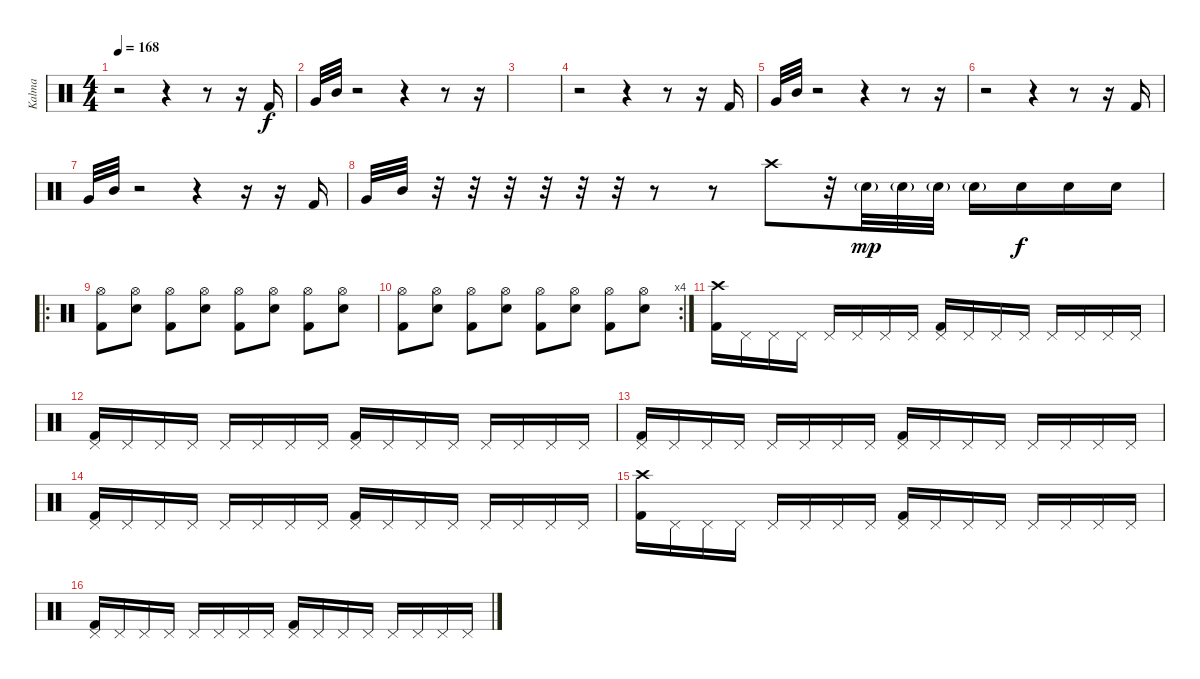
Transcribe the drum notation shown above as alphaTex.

\track ("Kalma" "Kalma") {instrument percussion}
\staff {score}
\articulation defaults
\ts (4 4)
\tempo 168
\clef neutral
\ks c
r.2{dy f} r.4 r.8 r.16 "Kick (hit) 2".16 |
"Very Low Tom (hit)".32 "Mid Tom (hit)".32 r.2 r.4 r.8 r.16 |
|
r.2 r.4 r.8 r.16 "Kick (hit) 2".16 |
"Very Low Tom (hit)".32 "Mid Tom (hit)".32 r.2 r.4 r.8 r.16 |
r.2 r.4 r.8 r.16 "Kick (hit) 2".16 |
"Very Low Tom (hit)".32 "Mid Tom (hit)".32 r.2 r.4 r.16 r.16 "Kick (hit) 2".16 |
"Very Low Tom (hit)".32 "Mid Tom (hit)".32 r.32 r.32 r.32 r.32 r.32 r.32 r.8 r.8 "Crash high (hit)".8 r.32 "Snare (hit) 2"{g}.32{dy mp} "Snare (hit) 2"{g}.32 "Snare (hit) 2"{g}.32 "Snare (hit) 2"{g}.16 "Snare (hit) 2".16{dy f} "Snare (hit) 2".16 "Snare (hit) 2".16 |
\ro
("Hi-Hat (open)" "Kick (hit) 2").8 ("Hi-Hat (open)" "Snare (hit) 2").8 ("Hi-Hat (open)" "Kick (hit) 2").8 ("Hi-Hat (open)" "Snare (hit) 2").8 ("Hi-Hat (open)" "Kick (hit) 2").8 ("Hi-Hat (open)" "Snare (hit) 2").8 ("Hi-Hat (open)" "Kick (hit) 2").8 ("Hi-Hat (open)" "Snare (hit) 2").8 |
\rc 4
("Hi-Hat (open)" "Kick (hit) 2").8 ("Hi-Hat (open)" "Snare (hit) 2").8 ("Hi-Hat (open)" "Kick (hit) 2").8 ("Hi-Hat (open)" "Snare (hit) 2").8 ("Hi-Hat (open)" "Kick (hit) 2").8 ("Hi-Hat (open)" "Snare (hit) 2").8 ("Hi-Hat (open)" "Kick (hit) 2").8 ("Hi-Hat (open)" "Snare (hit) 2").8 |
("Crash high (hit)" "Kick (hit) 2").16 "Pedal Hi-Hat (hit)".16 "Pedal Hi-Hat (hit)".16 "Pedal Hi-Hat (hit)".16 "Pedal Hi-Hat (hit)".16 "Pedal Hi-Hat (hit)".16 "Pedal Hi-Hat (hit)".16 "Pedal Hi-Hat (hit)".16 ("Pedal Hi-Hat (hit)" "Kick (hit) 2").16 "Pedal Hi-Hat (hit)".16 "Pedal Hi-Hat (hit)".16 "Pedal Hi-Hat (hit)".16 "Pedal Hi-Hat (hit)".16 "Pedal Hi-Hat (hit)".16 "Pedal Hi-Hat (hit)".16 "Pedal Hi-Hat (hit)".16 |
("Pedal Hi-Hat (hit)" "Kick (hit) 2").16 "Pedal Hi-Hat (hit)".16 "Pedal Hi-Hat (hit)".16 "Pedal Hi-Hat (hit)".16 "Pedal Hi-Hat (hit)".16 "Pedal Hi-Hat (hit)".16 "Pedal Hi-Hat (hit)".16 "Pedal Hi-Hat (hit)".16 ("Pedal Hi-Hat (hit)" "Kick (hit) 2").16 "Pedal Hi-Hat (hit)".16 "Pedal Hi-Hat (hit)".16 "Pedal Hi-Hat (hit)".16 "Pedal Hi-Hat (hit)".16 "Pedal Hi-Hat (hit)".16 "Pedal Hi-Hat (hit)".16 "Pedal Hi-Hat (hit)".16 |
("Pedal Hi-Hat (hit)" "Kick (hit) 2").16 "Pedal Hi-Hat (hit)".16 "Pedal Hi-Hat (hit)".16 "Pedal Hi-Hat (hit)".16 "Pedal Hi-Hat (hit)".16 "Pedal Hi-Hat (hit)".16 "Pedal Hi-Hat (hit)".16 "Pedal Hi-Hat (hit)".16 ("Pedal Hi-Hat (hit)" "Kick (hit) 2").16 "Pedal Hi-Hat (hit)".16 "Pedal Hi-Hat (hit)".16 "Pedal Hi-Hat (hit)".16 "Pedal Hi-Hat (hit)".16 "Pedal Hi-Hat (hit)".16 "Pedal Hi-Hat (hit)".16 "Pedal Hi-Hat (hit)".16 |
("Pedal Hi-Hat (hit)" "Kick (hit) 2").16 "Pedal Hi-Hat (hit)".16 "Pedal Hi-Hat (hit)".16 "Pedal Hi-Hat (hit)".16 "Pedal Hi-Hat (hit)".16 "Pedal Hi-Hat (hit)".16 "Pedal Hi-Hat (hit)".16 "Pedal Hi-Hat (hit)".16 ("Pedal Hi-Hat (hit)" "Kick (hit) 2").16 "Pedal Hi-Hat (hit)".16 "Pedal Hi-Hat (hit)".16 "Pedal Hi-Hat (hit)".16 "Pedal Hi-Hat (hit)".16 "Pedal Hi-Hat (hit)".16 "Pedal Hi-Hat (hit)".16 "Pedal Hi-Hat (hit)".16 |
("Crash high (hit)" "Kick (hit) 2").16 "Pedal Hi-Hat (hit)".16 "Pedal Hi-Hat (hit)".16 "Pedal Hi-Hat (hit)".16 "Pedal Hi-Hat (hit)".16 "Pedal Hi-Hat (hit)".16 "Pedal Hi-Hat (hit)".16 "Pedal Hi-Hat (hit)".16 ("Pedal Hi-Hat (hit)" "Kick (hit) 2").16 "Pedal Hi-Hat (hit)".16 "Pedal Hi-Hat (hit)".16 "Pedal Hi-Hat (hit)".16 "Pedal Hi-Hat (hit)".16 "Pedal Hi-Hat (hit)".16 "Pedal Hi-Hat (hit)".16 "Pedal Hi-Hat (hit)".16 |
("Pedal Hi-Hat (hit)" "Kick (hit) 2").16 "Pedal Hi-Hat (hit)".16 "Pedal Hi-Hat (hit)".16 "Pedal Hi-Hat (hit)".16 "Pedal Hi-Hat (hit)".16 "Pedal Hi-Hat (hit)".16 "Pedal Hi-Hat (hit)".16 "Pedal Hi-Hat (hit)".16 ("Pedal Hi-Hat (hit)" "Kick (hit) 2").16 "Pedal Hi-Hat (hit)".16 "Pedal Hi-Hat (hit)".16 "Pedal Hi-Hat (hit)".16 "Pedal Hi-Hat (hit)".16 "Pedal Hi-Hat (hit)".16 "Pedal Hi-Hat (hit)".16 "Pedal Hi-Hat (hit)".16
